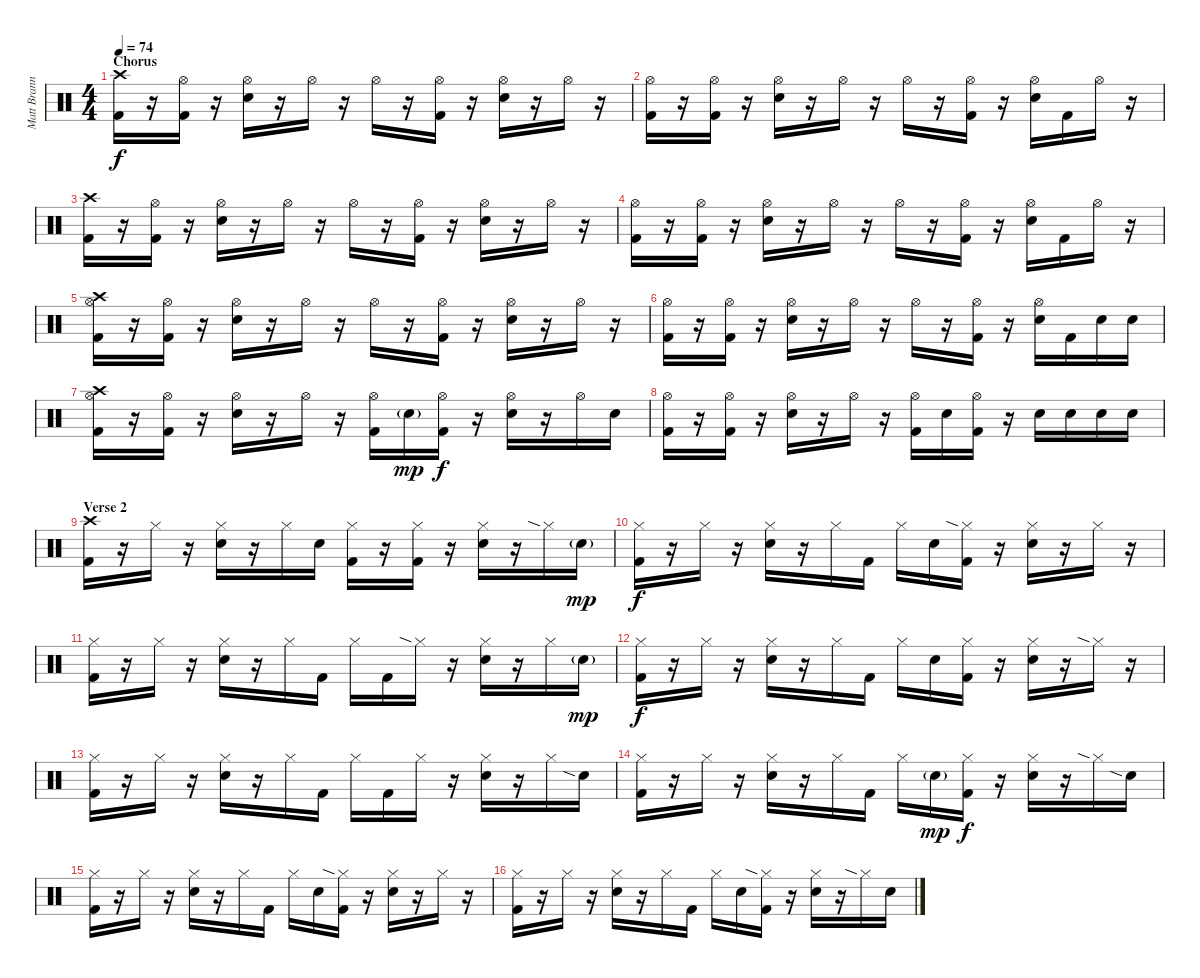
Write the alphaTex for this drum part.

\track ("Matt Brann" "Matt Brann") {instrument percussion}
\staff {score}
\articulation defaults
\ts (4 4)
\section ("" "Chorus")
\tempo 74
\clef neutral
\ks c
("Crash high (hit)" "Kick (hit) 2").16{dy f} r.16 ("Hi-Hat (open)" "Kick (hit) 2").16 r.16 ("Hi-Hat (open)" "Snare (hit) 2").16 r.16 "Hi-Hat (open)".16 r.16 "Hi-Hat (open)".16 r.16 ("Hi-Hat (open)" "Kick (hit) 2").16 r.16 ("Hi-Hat (open)" "Snare (hit) 2").16 r.16 "Hi-Hat (open)".16 r.16 |
("Hi-Hat (open)" "Kick (hit) 2").16 r.16 ("Hi-Hat (open)" "Kick (hit) 2").16 r.16 ("Hi-Hat (open)" "Snare (hit) 2").16 r.16 "Hi-Hat (open)".16 r.16 "Hi-Hat (open)".16 r.16 ("Hi-Hat (open)" "Kick (hit) 2").16 r.16 ("Hi-Hat (open)" "Snare (hit) 2").16 "Kick (hit) 2".16 "Hi-Hat (open)".16 r.16 |
("Crash high (hit)" "Kick (hit) 2").16 r.16 ("Hi-Hat (open)" "Kick (hit) 2").16 r.16 ("Hi-Hat (open)" "Snare (hit) 2").16 r.16 "Hi-Hat (open)".16 r.16 "Hi-Hat (open)".16 r.16 ("Hi-Hat (open)" "Kick (hit) 2").16 r.16 ("Hi-Hat (open)" "Snare (hit) 2").16 r.16 "Hi-Hat (open)".16 r.16 |
("Hi-Hat (open)" "Kick (hit) 2").16 r.16 ("Hi-Hat (open)" "Kick (hit) 2").16 r.16 ("Hi-Hat (open)" "Snare (hit) 2").16 r.16 "Hi-Hat (open)".16 r.16 "Hi-Hat (open)".16 r.16 ("Hi-Hat (open)" "Kick (hit) 2").16 r.16 ("Hi-Hat (open)" "Snare (hit) 2").16 "Kick (hit) 2".16 "Hi-Hat (open)".16 r.16 |
("Crash high (hit)" "Hi-Hat (open)" "Kick (hit) 2").16 r.16 ("Hi-Hat (open)" "Kick (hit) 2").16 r.16 ("Hi-Hat (open)" "Snare (hit) 2").16 r.16 "Hi-Hat (open)".16 r.16 "Hi-Hat (open)".16 r.16 ("Hi-Hat (open)" "Kick (hit) 2").16 r.16 ("Hi-Hat (open)" "Snare (hit) 2").16 r.16 "Hi-Hat (open)".16 r.16 |
("Hi-Hat (open)" "Kick (hit) 2").16 r.16 ("Hi-Hat (open)" "Kick (hit) 2").16 r.16 ("Hi-Hat (open)" "Snare (hit) 2").16 r.16 "Hi-Hat (open)".16 r.16 "Hi-Hat (open)".16 r.16 ("Hi-Hat (open)" "Kick (hit) 2").16 r.16 ("Hi-Hat (open)" "Snare (hit) 2").16 "Kick (hit) 2".16 "Snare (hit) 2".16 "Snare (hit) 2".16 |
("Crash high (hit)" "Hi-Hat (open)" "Kick (hit) 2").16 r.16 ("Hi-Hat (open)" "Kick (hit) 2").16 r.16 ("Hi-Hat (open)" "Snare (hit) 2").16 r.16 "Hi-Hat (open)".16 r.16 ("Hi-Hat (open)" "Kick (hit) 2").16 "Snare (hit) 2"{g}.16{dy mp} ("Hi-Hat (open)" "Kick (hit) 2").16{dy f} r.16 ("Hi-Hat (open)" "Snare (hit) 2").16 r.16 "Hi-Hat (open)".16 "Snare (hit) 2".16 |
("Hi-Hat (open)" "Kick (hit) 2").16 r.16 ("Hi-Hat (open)" "Kick (hit) 2").16 r.16 ("Hi-Hat (open)" "Snare (hit) 2").16 r.16 "Hi-Hat (open)".16 r.16 ("Hi-Hat (open)" "Kick (hit) 2").16 "Snare (hit) 2".16 ("Hi-Hat (open)" "Kick (hit) 2").16 r.16 "Snare (hit) 2".16 "Snare (hit) 2".16 "Snare (hit) 2".16 "Snare (hit) 2".16 |
\section ("" "Verse 2")
("Crash high (hit)" "Kick (hit) 2").16 r.16 "Hi-Hat (closed)".16 r.16 ("Hi-Hat (closed)" "Snare (hit) 2").16 r.16 "Hi-Hat (closed)".16 "Snare (hit) 2".16 ("Hi-Hat (closed)" "Kick (hit) 2").16 r.16 ("Hi-Hat (closed)" "Kick (hit) 2").16 r.16 ("Hi-Hat (closed)" "Snare (hit) 2").16 r.16 "Hi-Hat (closed)"{sia}.16 "Snare (hit) 2"{g}.16{dy mp} |
("Hi-Hat (closed)" "Kick (hit) 2").16{dy f} r.16 "Hi-Hat (closed)".16 r.16 ("Hi-Hat (closed)" "Snare (hit) 2").16 r.16 "Hi-Hat (closed)".16 "Kick (hit) 2".16 "Hi-Hat (closed)".16 "Snare (hit) 2".16 ("Hi-Hat (closed)"{sia} "Kick (hit) 2").16 r.16 ("Hi-Hat (closed)" "Snare (hit) 2").16 r.16 "Hi-Hat (closed)".16 r.16 |
("Hi-Hat (closed)" "Kick (hit) 2").16 r.16 "Hi-Hat (closed)".16 r.16 ("Hi-Hat (closed)" "Snare (hit) 2").16 r.16 "Hi-Hat (closed)".16 "Kick (hit) 2".16 "Hi-Hat (closed)".16 "Kick (hit) 2".16 "Hi-Hat (closed)"{sia}.16 r.16 ("Hi-Hat (closed)" "Snare (hit) 2").16 r.16 "Hi-Hat (closed)".16 "Snare (hit) 2"{g}.16{dy mp} |
("Hi-Hat (closed)" "Kick (hit) 2").16{dy f} r.16 "Hi-Hat (closed)".16 r.16 ("Hi-Hat (closed)" "Snare (hit) 2").16 r.16 "Hi-Hat (closed)".16 "Kick (hit) 2".16 "Hi-Hat (closed)".16 "Snare (hit) 2".16 ("Hi-Hat (closed)" "Kick (hit) 2").16 r.16 ("Hi-Hat (closed)" "Snare (hit) 2").16 r.16 "Hi-Hat (closed)"{sia}.16 r.16 |
("Hi-Hat (closed)" "Kick (hit) 2").16 r.16 "Hi-Hat (closed)".16 r.16 ("Hi-Hat (closed)" "Snare (hit) 2").16 r.16 "Hi-Hat (closed)".16 "Kick (hit) 2".16 "Hi-Hat (closed)".16 "Kick (hit) 2".16 "Hi-Hat (closed)".16 r.16 ("Hi-Hat (closed)" "Snare (hit) 2").16 r.16 "Hi-Hat (closed)".16 "Snare (hit) 2"{sia}.16 |
("Hi-Hat (closed)" "Kick (hit) 2").16 r.16 "Hi-Hat (closed)".16 r.16 ("Hi-Hat (closed)" "Snare (hit) 2").16 r.16 "Hi-Hat (closed)".16 "Kick (hit) 2".16 "Hi-Hat (closed)".16 "Snare (hit) 2"{g}.16{dy mp} ("Hi-Hat (closed)" "Kick (hit) 2").16{dy f} r.16 ("Hi-Hat (closed)" "Snare (hit) 2").16 r.16 "Hi-Hat (closed)"{sia}.16 "Snare (hit) 2"{sia}.16 |
("Hi-Hat (closed)" "Kick (hit) 2").16 r.16 "Hi-Hat (closed)".16 r.16 ("Hi-Hat (closed)" "Snare (hit) 2").16 r.16 "Hi-Hat (closed)".16 "Kick (hit) 2".16 "Hi-Hat (closed)".16 "Snare (hit) 2".16 ("Hi-Hat (closed)"{sia} "Kick (hit) 2").16 r.16 ("Hi-Hat (closed)" "Snare (hit) 2").16 r.16 "Hi-Hat (closed)".16 r.16 |
("Hi-Hat (closed)" "Kick (hit) 2").16 r.16 "Hi-Hat (closed)".16 r.16 ("Hi-Hat (closed)" "Snare (hit) 2").16 r.16 "Hi-Hat (closed)".16 "Kick (hit) 2".16 "Hi-Hat (closed)".16 "Snare (hit) 2".16 ("Hi-Hat (closed)"{sia} "Kick (hit) 2").16 r.16 ("Hi-Hat (closed)" "Snare (hit) 2").16 r.16 "Hi-Hat (closed)"{sia}.16 "Snare (hit) 2".16
